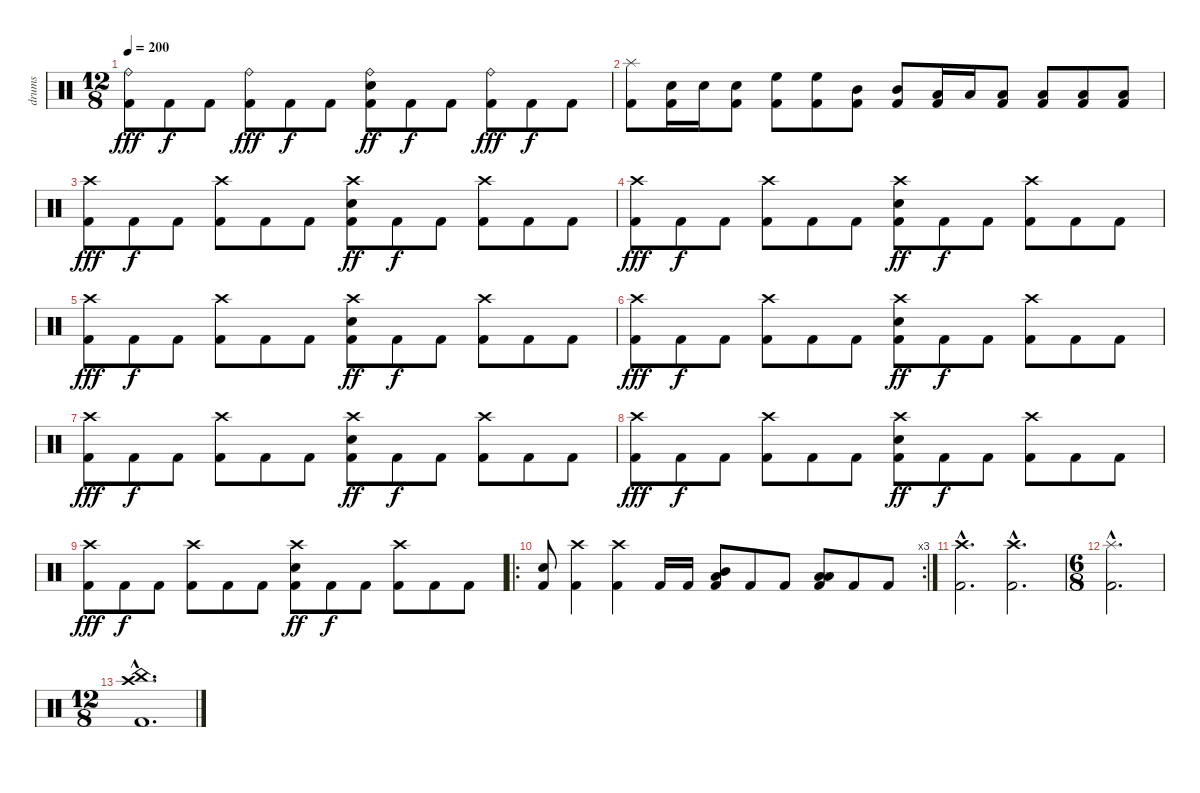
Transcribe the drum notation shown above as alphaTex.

\track ("drums" "drums") {instrument percussion}
\staff {score}
\articulation defaults
\ts (12 8)
\tempo 200
\clef neutral
\ks c
("Ride (bell)" "Kick (hit) 2").8{dy fff} "Kick (hit) 2".8{dy f} "Kick (hit) 2".8 ("Ride (bell)" "Kick (hit) 2").8{dy fff} "Kick (hit) 2".8{dy f} "Kick (hit) 2".8 ("Ride (bell)" "Electric Snare (hit)" "Kick (hit) 2").8{dy ff} "Kick (hit) 2".8{dy f} "Kick (hit) 2".8 ("Ride (bell)" "Kick (hit) 2").8{dy fff} "Kick (hit) 2".8{dy f} "Kick (hit) 2".8 |
("Splash (hit)" "Kick (hit) 2").8 ("Electric Snare (hit)" "Kick (hit) 2").16 "Electric Snare (hit)".16 ("Electric Snare (hit)" "Kick (hit) 2").8 ("High Floor Tom (hit)" "Kick (hit) 2").8 ("High Floor Tom (hit)" "Kick (hit) 2").8 ("Mid Tom (hit)" "Kick (hit) 2").8 ("Mid Tom (hit)" "Kick (hit) 2").8 ("Low Tom (hit)" "Kick (hit) 2").16 "Low Tom (hit)".16 ("Low Tom (hit)" "Kick (hit) 2").8 ("Low Floor Tom (hit)" "Kick (hit) 2").8 ("Low Floor Tom (hit)" "Kick (hit) 2").8 ("Low Floor Tom (hit)" "Kick (hit) 2").8 |
("Crash high (hit)" "Kick (hit) 2").8{dy fff} "Kick (hit) 2".8{dy f} "Kick (hit) 2".8 ("Crash high (hit)" "Kick (hit) 2").8 "Kick (hit) 2".8 "Kick (hit) 2".8 ("Crash high (hit)" "Electric Snare (hit)" "Kick (hit) 2").8{dy ff} "Kick (hit) 2".8{dy f} "Kick (hit) 2".8 ("Crash high (hit)" "Kick (hit) 2").8 "Kick (hit) 2".8 "Kick (hit) 2".8 |
("Crash high (hit)" "Kick (hit) 2").8{dy fff} "Kick (hit) 2".8{dy f} "Kick (hit) 2".8 ("Crash high (hit)" "Kick (hit) 2").8 "Kick (hit) 2".8 "Kick (hit) 2".8 ("Crash high (hit)" "Electric Snare (hit)" "Kick (hit) 2").8{dy ff} "Kick (hit) 2".8{dy f} "Kick (hit) 2".8 ("Crash high (hit)" "Kick (hit) 2").8 "Kick (hit) 2".8 "Kick (hit) 2".8 |
("Crash high (hit)" "Kick (hit) 2").8{dy fff} "Kick (hit) 2".8{dy f} "Kick (hit) 2".8 ("Crash high (hit)" "Kick (hit) 2").8 "Kick (hit) 2".8 "Kick (hit) 2".8 ("Crash high (hit)" "Electric Snare (hit)" "Kick (hit) 2").8{dy ff} "Kick (hit) 2".8{dy f} "Kick (hit) 2".8 ("Crash high (hit)" "Kick (hit) 2").8 "Kick (hit) 2".8 "Kick (hit) 2".8 |
("Crash high (hit)" "Kick (hit) 2").8{dy fff} "Kick (hit) 2".8{dy f} "Kick (hit) 2".8 ("Crash high (hit)" "Kick (hit) 2").8 "Kick (hit) 2".8 "Kick (hit) 2".8 ("Crash high (hit)" "Electric Snare (hit)" "Kick (hit) 2").8{dy ff} "Kick (hit) 2".8{dy f} "Kick (hit) 2".8 ("Crash high (hit)" "Kick (hit) 2").8 "Kick (hit) 2".8 "Kick (hit) 2".8 |
("Crash high (hit)" "Kick (hit) 2").8{dy fff} "Kick (hit) 2".8{dy f} "Kick (hit) 2".8 ("Crash high (hit)" "Kick (hit) 2").8 "Kick (hit) 2".8 "Kick (hit) 2".8 ("Crash high (hit)" "Electric Snare (hit)" "Kick (hit) 2").8{dy ff} "Kick (hit) 2".8{dy f} "Kick (hit) 2".8 ("Crash high (hit)" "Kick (hit) 2").8 "Kick (hit) 2".8 "Kick (hit) 2".8 |
("Crash high (hit)" "Kick (hit) 2").8{dy fff} "Kick (hit) 2".8{dy f} "Kick (hit) 2".8 ("Crash high (hit)" "Kick (hit) 2").8 "Kick (hit) 2".8 "Kick (hit) 2".8 ("Crash high (hit)" "Electric Snare (hit)" "Kick (hit) 2").8{dy ff} "Kick (hit) 2".8{dy f} "Kick (hit) 2".8 ("Crash high (hit)" "Kick (hit) 2").8 "Kick (hit) 2".8 "Kick (hit) 2".8 |
("Crash high (hit)" "Kick (hit) 2").8{dy fff} "Kick (hit) 2".8{dy f} "Kick (hit) 2".8 ("Crash high (hit)" "Kick (hit) 2").8 "Kick (hit) 2".8 "Kick (hit) 2".8 ("Crash high (hit)" "Electric Snare (hit)" "Kick (hit) 2").8{dy ff} "Kick (hit) 2".8{dy f} "Kick (hit) 2".8 ("Crash high (hit)" "Kick (hit) 2").8 "Kick (hit) 2".8 "Kick (hit) 2".8 |
\ro
\rc 3
("Electric Snare (hit)" "Kick (hit) 2").8 ("Crash high (hit)" "Kick (hit) 2").4 ("Crash high (hit)" "Kick (hit) 2").4 "Kick (hit) 2".16 "Kick (hit) 2".16 ("Mid Tom (hit)" "Low Tom (hit)" "Kick (hit) 2").8{bu 480} "Kick (hit) 2".8 "Kick (hit) 2".8 ("Low Tom (hit)" "Low Floor Tom (hit)" "Kick (hit) 2").8{bu 480} "Kick (hit) 2".8 "Kick (hit) 2".8 |
("Crash high (hit)"{hac} "Kick (hit) 2"{hac}).2{d} ("Crash high (hit)"{hac} "Kick (hit) 2"{hac}).2{d} |
\ts (6 8)
("Splash (hit)"{hac} "Kick (hit) 2"{hac}).2{d} |
\ts (12 8)
("Crash high (hit)"{hac} "China (hit)"{hac} "Kick (hit) 2"{hac}).1{d}
